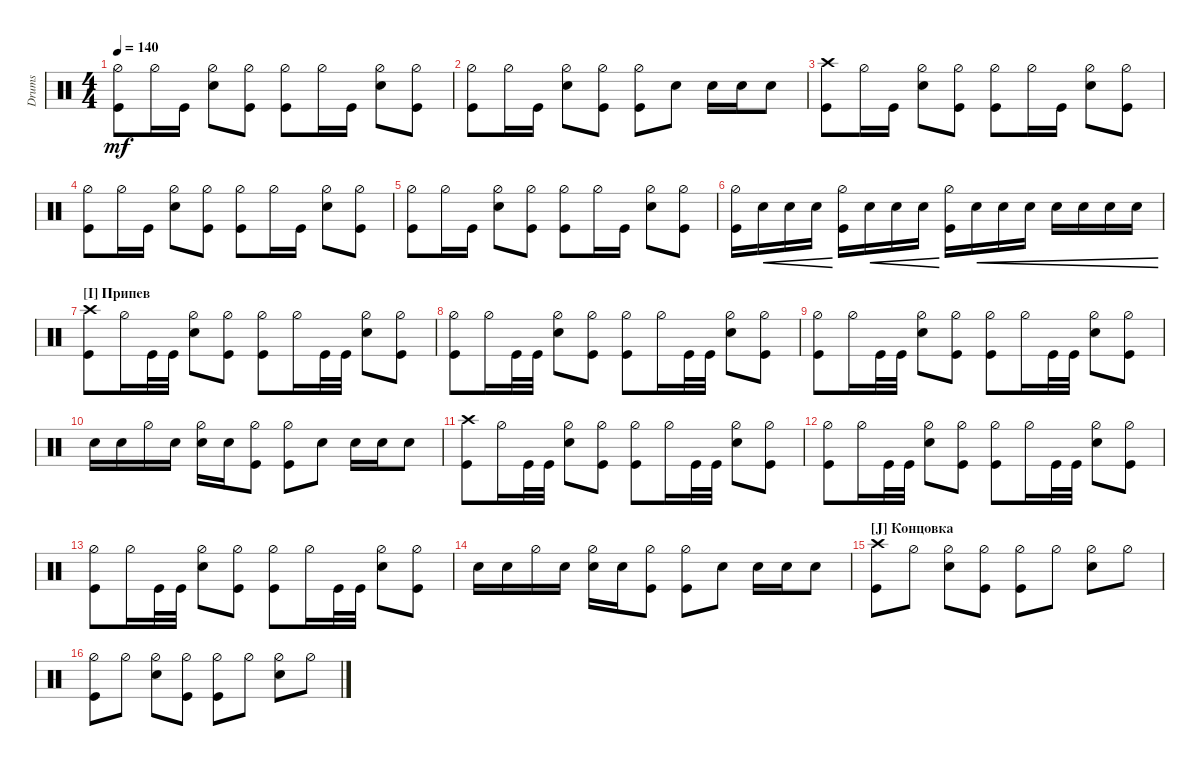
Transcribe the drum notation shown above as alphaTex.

\track ("Drumkit" "Drums") {instrument percussion}
\staff {score}
\articulation defaults
\ts (4 4)
\tempo 140
\clef neutral
\ks c
("Kick (hit)" "Hi-Hat (half)").8{dy mf} "Hi-Hat (half)".16 "Kick (hit)".16 ("Snare (hit) 2" "Hi-Hat (half)").8 ("Kick (hit)" "Hi-Hat (half)").8 ("Kick (hit)" "Hi-Hat (half)").8 "Hi-Hat (half)".16 "Kick (hit)".16 ("Hi-Hat (half)" "Snare (hit) 2").8 ("Hi-Hat (half)" "Kick (hit)").8 |
("Kick (hit)" "Hi-Hat (half)").8 "Hi-Hat (half)".16 "Kick (hit)".16 ("Snare (hit) 2" "Hi-Hat (half)").8 ("Kick (hit)" "Hi-Hat (half)").8 ("Kick (hit)" "Hi-Hat (half)").8 "Snare (hit) 2".8 "Snare (hit) 2".16 "Snare (hit) 2".16 "Snare (hit) 2".8 |
("Kick (hit)" "Crash high (hit)").8 "Hi-Hat (half)".16 "Kick (hit)".16 ("Snare (hit) 2" "Hi-Hat (half)").8 ("Kick (hit)" "Hi-Hat (half)").8 ("Kick (hit)" "Hi-Hat (half)").8 "Hi-Hat (half)".16 "Kick (hit)".16 ("Hi-Hat (half)" "Snare (hit) 2").8 ("Hi-Hat (half)" "Kick (hit)").8 |
("Kick (hit)" "Hi-Hat (half)").8 "Hi-Hat (half)".16 "Kick (hit)".16 ("Snare (hit) 2" "Hi-Hat (half)").8 ("Kick (hit)" "Hi-Hat (half)").8 ("Kick (hit)" "Hi-Hat (half)").8 "Hi-Hat (half)".16 "Kick (hit)".16 ("Hi-Hat (half)" "Snare (hit) 2").8 ("Hi-Hat (half)" "Kick (hit)").8 |
("Kick (hit)" "Hi-Hat (half)").8 "Hi-Hat (half)".16 "Kick (hit)".16 ("Snare (hit) 2" "Hi-Hat (half)").8 ("Kick (hit)" "Hi-Hat (half)").8 ("Kick (hit)" "Hi-Hat (half)").8 "Hi-Hat (half)".16 "Kick (hit)".16 ("Hi-Hat (half)" "Snare (hit) 2").8 ("Hi-Hat (half)" "Kick (hit)").8 |
("Kick (hit)" "Hi-Hat (half)").16 "Snare (hit) 2".16{cre} "Snare (hit) 2".16{cre} "Snare (hit) 2".16{cre} ("Kick (hit)" "Hi-Hat (half)").16 "Snare (hit) 2".16{cre} "Snare (hit) 2".16{cre} "Snare (hit) 2".16{cre} ("Kick (hit)" "Hi-Hat (half)").16 "Snare (hit) 2".16{cre} "Snare (hit) 2".16{cre} "Snare (hit) 2".16{cre} "Snare (hit) 2".16{cre} "Snare (hit) 2".16{cre} "Snare (hit) 2".16{cre} "Snare (hit) 2".16{cre} |
\section ("I" "Припев")
("Kick (hit)" "Crash high (hit)").8 "Hi-Hat (half)".16 "Kick (hit)".32 "Kick (hit)".32 ("Hi-Hat (half)" "Snare (hit) 2").8 ("Kick (hit)" "Hi-Hat (half)").8 ("Kick (hit)" "Hi-Hat (half)").8 "Hi-Hat (half)".16 "Kick (hit)".32 "Kick (hit)".32 ("Hi-Hat (half)" "Snare (hit) 2").8 ("Hi-Hat (half)" "Kick (hit)").8 |
("Kick (hit)" "Hi-Hat (half)").8 "Hi-Hat (half)".16 "Kick (hit)".32 "Kick (hit)".32 ("Hi-Hat (half)" "Snare (hit) 2").8 ("Kick (hit)" "Hi-Hat (half)").8 ("Kick (hit)" "Hi-Hat (half)").8 "Hi-Hat (half)".16 "Kick (hit)".32 "Kick (hit)".32 ("Hi-Hat (half)" "Snare (hit) 2").8 ("Hi-Hat (half)" "Kick (hit)").8 |
("Kick (hit)" "Hi-Hat (half)").8 "Hi-Hat (half)".16 "Kick (hit)".32 "Kick (hit)".32 ("Hi-Hat (half)" "Snare (hit) 2").8 ("Kick (hit)" "Hi-Hat (half)").8 ("Kick (hit)" "Hi-Hat (half)").8 "Hi-Hat (half)".16 "Kick (hit)".32 "Kick (hit)".32 ("Hi-Hat (half)" "Snare (hit) 2").8 ("Hi-Hat (half)" "Kick (hit)").8 |
"Snare (hit) 2".16 "Snare (hit) 2".16 "Hi-Hat (half)".16 "Snare (hit) 2".16 ("Hi-Hat (half)" "Snare (hit) 2").16 "Snare (hit) 2".16 ("Kick (hit)" "Hi-Hat (half)").8 ("Kick (hit)" "Hi-Hat (half)").8 "Snare (hit) 2".8 "Snare (hit) 2".16 "Snare (hit) 2".16 "Snare (hit) 2".8 |
("Kick (hit)" "Crash high (hit)").8 "Hi-Hat (half)".16 "Kick (hit)".32 "Kick (hit)".32 ("Hi-Hat (half)" "Snare (hit) 2").8 ("Kick (hit)" "Hi-Hat (half)").8 ("Kick (hit)" "Hi-Hat (half)").8 "Hi-Hat (half)".16 "Kick (hit)".32 "Kick (hit)".32 ("Hi-Hat (half)" "Snare (hit) 2").8 ("Hi-Hat (half)" "Kick (hit)").8 |
("Kick (hit)" "Hi-Hat (half)").8 "Hi-Hat (half)".16 "Kick (hit)".32 "Kick (hit)".32 ("Hi-Hat (half)" "Snare (hit) 2").8 ("Kick (hit)" "Hi-Hat (half)").8 ("Kick (hit)" "Hi-Hat (half)").8 "Hi-Hat (half)".16 "Kick (hit)".32 "Kick (hit)".32 ("Hi-Hat (half)" "Snare (hit) 2").8 ("Hi-Hat (half)" "Kick (hit)").8 |
("Kick (hit)" "Hi-Hat (half)").8 "Hi-Hat (half)".16 "Kick (hit)".32 "Kick (hit)".32 ("Hi-Hat (half)" "Snare (hit) 2").8 ("Kick (hit)" "Hi-Hat (half)").8 ("Kick (hit)" "Hi-Hat (half)").8 "Hi-Hat (half)".16 "Kick (hit)".32 "Kick (hit)".32 ("Hi-Hat (half)" "Snare (hit) 2").8 ("Hi-Hat (half)" "Kick (hit)").8 |
"Snare (hit) 2".16 "Snare (hit) 2".16 "Hi-Hat (half)".16 "Snare (hit) 2".16 ("Hi-Hat (half)" "Snare (hit) 2").16 "Snare (hit) 2".16 ("Kick (hit)" "Hi-Hat (half)").8 ("Kick (hit)" "Hi-Hat (half)").8 "Snare (hit) 2".8 "Snare (hit) 2".16 "Snare (hit) 2".16 "Snare (hit) 2".8 |
\section ("J" "Концовка")
("Kick (hit)" "Crash high (hit)").8 "Hi-Hat (half)".8 ("Snare (hit) 2" "Hi-Hat (half)").8 ("Kick (hit)" "Hi-Hat (half)").8 ("Kick (hit)" "Hi-Hat (half)").8 "Hi-Hat (half)".8 ("Snare (hit) 2" "Hi-Hat (half)").8 "Hi-Hat (half)".8 |
("Kick (hit)" "Hi-Hat (half)").8 "Hi-Hat (half)".8 ("Snare (hit) 2" "Hi-Hat (half)").8 ("Kick (hit)" "Hi-Hat (half)").8 ("Kick (hit)" "Hi-Hat (half)").8 "Hi-Hat (half)".8 ("Snare (hit) 2" "Hi-Hat (half)").8 "Hi-Hat (half)".8
